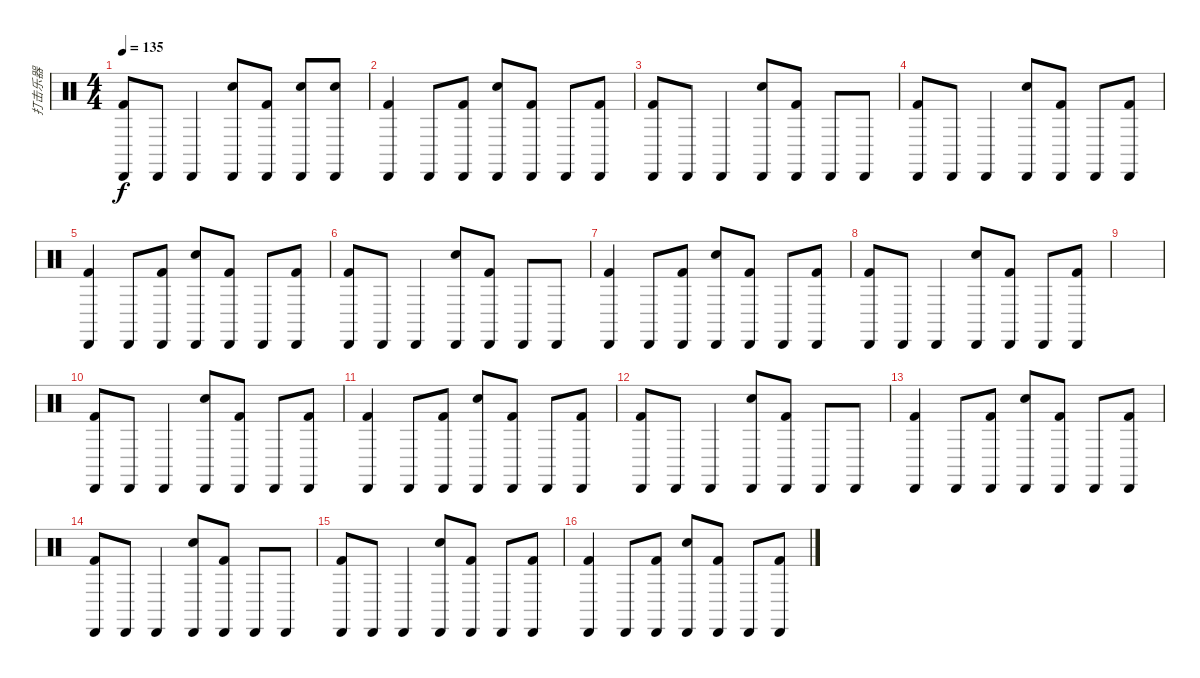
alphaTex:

\track ("打击乐器" "打击乐器") {instrument percussion}
\staff {score}
\articulation defaults
\ts (4 4)
\tempo 135
\clef neutral
\ks c
("Cabasa (hit)" "Kick (hit) 2").8{dy f} "Cabasa (hit)".8 "Cabasa (hit)".4 ("Snare (hit) 2" "Cabasa (hit)").8 ("Cabasa (hit)" "Kick (hit) 2").8 ("Snare (hit) 2" "Cabasa (hit)").8 ("Snare (hit) 2" "Cabasa (hit)").8 |
("Cabasa (hit)" "Kick (hit) 2").4 "Cabasa (hit)".8 ("Cabasa (hit)" "Kick (hit) 2").8 ("Snare (hit) 2" "Cabasa (hit)").8 ("Cabasa (hit)" "Kick (hit) 2").8 "Cabasa (hit)".8 ("Cabasa (hit)" "Kick (hit) 2").8 |
("Cabasa (hit)" "Kick (hit) 2").8 "Cabasa (hit)".8 "Cabasa (hit)".4 ("Snare (hit) 2" "Cabasa (hit)").8 ("Cabasa (hit)" "Kick (hit) 2").8 "Cabasa (hit)".8 "Cabasa (hit)".8 |
("Cabasa (hit)" "Kick (hit) 2").8 "Cabasa (hit)".8 "Cabasa (hit)".4 ("Snare (hit) 2" "Cabasa (hit)").8 ("Cabasa (hit)" "Kick (hit) 2").8 "Cabasa (hit)".8 ("Cabasa (hit)" "Kick (hit) 2").8 |
("Cabasa (hit)" "Kick (hit) 2").4 "Cabasa (hit)".8 ("Cabasa (hit)" "Kick (hit) 2").8 ("Snare (hit) 2" "Cabasa (hit)").8 ("Cabasa (hit)" "Kick (hit) 2").8 "Cabasa (hit)".8 ("Cabasa (hit)" "Kick (hit) 2").8 |
("Cabasa (hit)" "Kick (hit) 2").8 "Cabasa (hit)".8 "Cabasa (hit)".4 ("Snare (hit) 2" "Cabasa (hit)").8 ("Cabasa (hit)" "Kick (hit) 2").8 "Cabasa (hit)".8 "Cabasa (hit)".8 |
("Cabasa (hit)" "Kick (hit) 2").4 "Cabasa (hit)".8 ("Cabasa (hit)" "Kick (hit) 2").8 ("Snare (hit) 2" "Cabasa (hit)").8 ("Cabasa (hit)" "Kick (hit) 2").8 "Cabasa (hit)".8 ("Cabasa (hit)" "Kick (hit) 2").8 |
("Cabasa (hit)" "Kick (hit) 2").8 "Cabasa (hit)".8 "Cabasa (hit)".4 ("Snare (hit) 2" "Cabasa (hit)").8 ("Cabasa (hit)" "Kick (hit) 2").8 "Cabasa (hit)".8 ("Cabasa (hit)" "Kick (hit) 2").8 |
|
("Cabasa (hit)" "Kick (hit) 2").8 "Cabasa (hit)".8 "Cabasa (hit)".4 ("Snare (hit) 2" "Cabasa (hit)").8 ("Cabasa (hit)" "Kick (hit) 2").8 "Cabasa (hit)".8 ("Cabasa (hit)" "Kick (hit) 2").8 |
("Cabasa (hit)" "Kick (hit) 2").4 "Cabasa (hit)".8 ("Cabasa (hit)" "Kick (hit) 2").8 ("Snare (hit) 2" "Cabasa (hit)").8 ("Cabasa (hit)" "Kick (hit) 2").8 "Cabasa (hit)".8 ("Cabasa (hit)" "Kick (hit) 2").8 |
("Cabasa (hit)" "Kick (hit) 2").8 "Cabasa (hit)".8 "Cabasa (hit)".4 ("Snare (hit) 2" "Cabasa (hit)").8 ("Cabasa (hit)" "Kick (hit) 2").8 "Cabasa (hit)".8 "Cabasa (hit)".8 |
("Cabasa (hit)" "Kick (hit) 2").4 "Cabasa (hit)".8 ("Cabasa (hit)" "Kick (hit) 2").8 ("Snare (hit) 2" "Cabasa (hit)").8 ("Cabasa (hit)" "Kick (hit) 2").8 "Cabasa (hit)".8 ("Cabasa (hit)" "Kick (hit) 2").8 |
("Cabasa (hit)" "Kick (hit) 2").8 "Cabasa (hit)".8 "Cabasa (hit)".4 ("Snare (hit) 2" "Cabasa (hit)").8 ("Cabasa (hit)" "Kick (hit) 2").8 "Cabasa (hit)".8 "Cabasa (hit)".8 |
("Cabasa (hit)" "Kick (hit) 2").8 "Cabasa (hit)".8 "Cabasa (hit)".4 ("Snare (hit) 2" "Cabasa (hit)").8 ("Cabasa (hit)" "Kick (hit) 2").8 "Cabasa (hit)".8 ("Cabasa (hit)" "Kick (hit) 2").8 |
("Cabasa (hit)" "Kick (hit) 2").4 "Cabasa (hit)".8 ("Cabasa (hit)" "Kick (hit) 2").8 ("Snare (hit) 2" "Cabasa (hit)").8 ("Cabasa (hit)" "Kick (hit) 2").8 "Cabasa (hit)".8 ("Cabasa (hit)" "Kick (hit) 2").8
